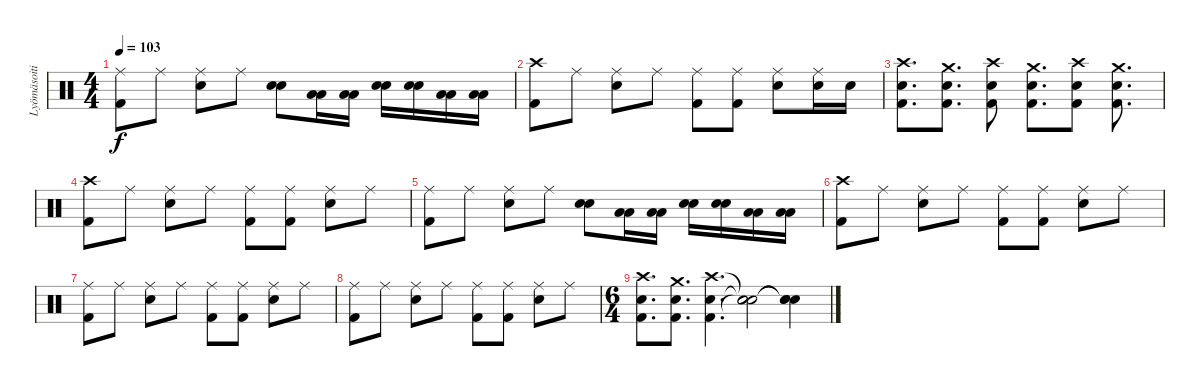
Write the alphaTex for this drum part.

\track ("Lyömäsoitin" "Lyömäsoiti") {instrument percussion}
\staff {score}
\articulation defaults
\ts (4 4)
\tempo 103
\clef neutral
\ks c
("Ride (middle)" "Kick (hit) 2").8{dy f} "Ride (middle)".8 ("Ride (middle)" "Electric Snare (hit)").8 "Ride (middle)".8 ("Electric Snare (hit)" "Electric Snare (hit)").8 ("Low Tom (hit)" "Low Tom (hit)").16 ("Low Tom (hit)" "Low Tom (hit)").16 ("Electric Snare (hit)" "Electric Snare (hit)").16 ("Electric Snare (hit)" "Electric Snare (hit)").16 ("Low Tom (hit)" "Low Tom (hit)").16 ("Low Tom (hit)" "Low Tom (hit)").16 |
("Crash high (hit)" "Kick (hit) 2").8 "Ride (middle)".8 ("Ride (middle)" "Electric Snare (hit)").8 "Ride (middle)".8 ("Ride (middle)" "Kick (hit) 2").8 ("Ride (middle)" "Kick (hit) 2").8 ("Ride (middle)" "Electric Snare (hit)").8 ("Ride (middle)" "Electric Snare (hit)").16 "Electric Snare (hit)".16 |
("Crash high (hit)" "Electric Snare (hit)" "Kick (hit) 2").8{d} ("Crash medium (hit)" "Electric Snare (hit)" "Kick (hit) 2").8{d} ("Crash high (hit)" "Electric Snare (hit)" "Kick (hit) 2").8 ("Crash medium (hit)" "Electric Snare (hit)" "Kick (hit) 2").8{d} ("Crash high (hit)" "Electric Snare (hit)" "Kick (hit) 2").8 ("Crash medium (hit)" "Electric Snare (hit)" "Kick (hit) 2").8{d} |
("Crash high (hit)" "Kick (hit) 2").8 "Ride (middle)".8 ("Ride (middle)" "Electric Snare (hit)").8 "Ride (middle)".8 ("Ride (middle)" "Kick (hit) 2").8 ("Ride (middle)" "Kick (hit) 2").8 ("Ride (middle)" "Electric Snare (hit)").8 "Ride (middle)".8 |
("Ride (middle)" "Kick (hit) 2").8 "Ride (middle)".8 ("Ride (middle)" "Electric Snare (hit)").8 "Ride (middle)".8 ("Electric Snare (hit)" "Electric Snare (hit)").8 ("Low Tom (hit)" "Low Tom (hit)").16 ("Low Tom (hit)" "Low Tom (hit)").16 ("Electric Snare (hit)" "Electric Snare (hit)").16 ("Electric Snare (hit)" "Electric Snare (hit)").16 ("Low Tom (hit)" "Low Tom (hit)").16 ("Low Tom (hit)" "Low Tom (hit)").16 |
("Crash high (hit)" "Kick (hit) 2").8 "Ride (middle)".8 ("Ride (middle)" "Electric Snare (hit)").8 "Ride (middle)".8 ("Ride (middle)" "Kick (hit) 2").8 ("Ride (middle)" "Kick (hit) 2").8 ("Ride (middle)" "Electric Snare (hit)").8 "Ride (middle)".8 |
("Ride (middle)" "Kick (hit) 2").8 "Ride (middle)".8 ("Ride (middle)" "Electric Snare (hit)").8 "Ride (middle)".8 ("Ride (middle)" "Kick (hit) 2").8 ("Ride (middle)" "Kick (hit) 2").8 ("Ride (middle)" "Electric Snare (hit)").8 "Ride (middle)".8 |
("Ride (middle)" "Kick (hit) 2").8 "Ride (middle)".8 ("Ride (middle)" "Electric Snare (hit)").8 "Ride (middle)".8 ("Ride (middle)" "Kick (hit) 2").8 ("Ride (middle)" "Kick (hit) 2").8 ("Ride (middle)" "Electric Snare (hit)").8 "Ride (middle)".8 |
\ts (6 4)
("Crash high (hit)" "Electric Snare (hit)" "Kick (hit) 2").8{d} ("Crash medium (hit)" "Electric Snare (hit)" "Kick (hit) 2").8{d} ("Crash high (hit)" "Electric Snare (hit)" "Kick (hit) 2").4{d} ("Snare (hit)"{t} "Snare (hit)"{t} "Snare (hit)"{t}).2 ("Snare (hit)"{t} "Snare (hit)"{t} "Snare (hit)"{t}).4
